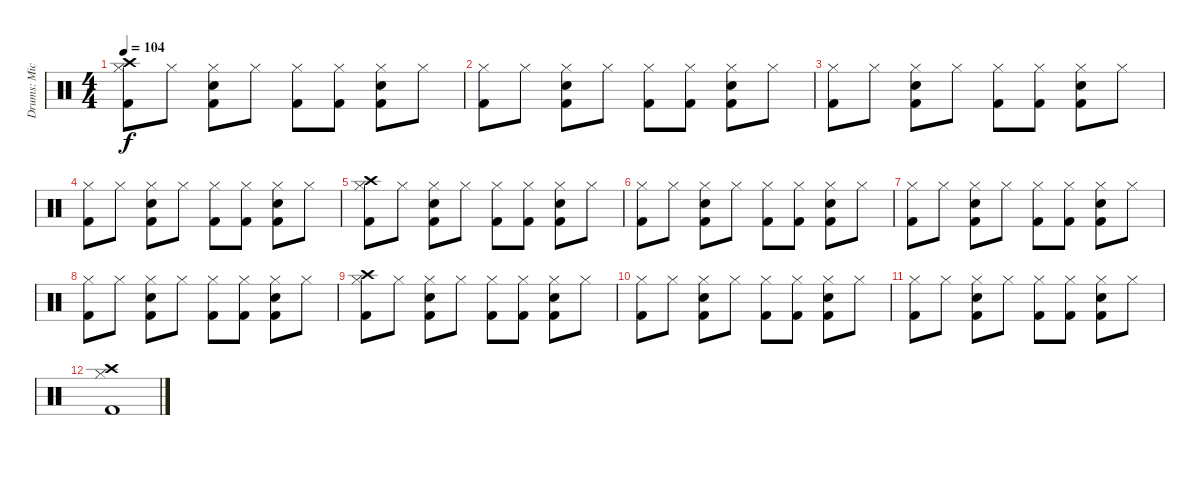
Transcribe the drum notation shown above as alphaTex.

\track ("Drums: Mick Fleetwood" "Drums: Mic") {instrument percussion}
\staff {score}
\articulation defaults
\ts (4 4)
\tempo 104
\clef neutral
\ks c
("Crash high (hit)" "Hi-Hat (closed)" "Kick (hit) 2").8{dy f} "Hi-Hat (closed)".8 ("Hi-Hat (closed)" "Snare (hit) 2" "Kick (hit) 2").8 "Hi-Hat (closed)".8 ("Hi-Hat (closed)" "Kick (hit) 2").8 ("Hi-Hat (closed)" "Kick (hit) 2").8 ("Hi-Hat (closed)" "Snare (hit) 2" "Kick (hit) 2").8 "Hi-Hat (closed)".8 |
("Hi-Hat (closed)" "Kick (hit) 2").8 "Hi-Hat (closed)".8 ("Hi-Hat (closed)" "Snare (hit) 2" "Kick (hit) 2").8 "Hi-Hat (closed)".8 ("Hi-Hat (closed)" "Kick (hit) 2").8 ("Hi-Hat (closed)" "Kick (hit) 2").8 ("Hi-Hat (closed)" "Snare (hit) 2" "Kick (hit) 2").8 "Hi-Hat (closed)".8 |
("Hi-Hat (closed)" "Kick (hit) 2").8 "Hi-Hat (closed)".8 ("Hi-Hat (closed)" "Snare (hit) 2" "Kick (hit) 2").8 "Hi-Hat (closed)".8 ("Hi-Hat (closed)" "Kick (hit) 2").8 ("Hi-Hat (closed)" "Kick (hit) 2").8 ("Hi-Hat (closed)" "Snare (hit) 2" "Kick (hit) 2").8 "Hi-Hat (closed)".8 |
("Hi-Hat (closed)" "Kick (hit) 2").8 "Hi-Hat (closed)".8 ("Hi-Hat (closed)" "Snare (hit) 2" "Kick (hit) 2").8 "Hi-Hat (closed)".8 ("Hi-Hat (closed)" "Kick (hit) 2").8 ("Hi-Hat (closed)" "Kick (hit) 2").8 ("Hi-Hat (closed)" "Snare (hit) 2" "Kick (hit) 2").8 "Hi-Hat (closed)".8 |
("Crash high (hit)" "Hi-Hat (closed)" "Kick (hit) 2").8 "Hi-Hat (closed)".8 ("Hi-Hat (closed)" "Snare (hit) 2" "Kick (hit) 2").8 "Hi-Hat (closed)".8 ("Hi-Hat (closed)" "Kick (hit) 2").8 ("Hi-Hat (closed)" "Kick (hit) 2").8 ("Hi-Hat (closed)" "Snare (hit) 2" "Kick (hit) 2").8 "Hi-Hat (closed)".8 |
("Hi-Hat (closed)" "Kick (hit) 2").8 "Hi-Hat (closed)".8 ("Hi-Hat (closed)" "Snare (hit) 2" "Kick (hit) 2").8 "Hi-Hat (closed)".8 ("Hi-Hat (closed)" "Kick (hit) 2").8 ("Hi-Hat (closed)" "Kick (hit) 2").8 ("Hi-Hat (closed)" "Snare (hit) 2" "Kick (hit) 2").8 "Hi-Hat (closed)".8 |
("Hi-Hat (closed)" "Kick (hit) 2").8 "Hi-Hat (closed)".8 ("Hi-Hat (closed)" "Snare (hit) 2" "Kick (hit) 2").8 "Hi-Hat (closed)".8 ("Hi-Hat (closed)" "Kick (hit) 2").8 ("Hi-Hat (closed)" "Kick (hit) 2").8 ("Hi-Hat (closed)" "Snare (hit) 2" "Kick (hit) 2").8 "Hi-Hat (closed)".8 |
("Hi-Hat (closed)" "Kick (hit) 2").8{volume 0} "Hi-Hat (closed)".8 ("Hi-Hat (closed)" "Snare (hit) 2" "Kick (hit) 2").8 "Hi-Hat (closed)".8 ("Hi-Hat (closed)" "Kick (hit) 2").8 ("Hi-Hat (closed)" "Kick (hit) 2").8 ("Hi-Hat (closed)" "Snare (hit) 2" "Kick (hit) 2").8 "Hi-Hat (closed)".8 |
("Crash high (hit)" "Hi-Hat (closed)" "Kick (hit) 2").8 "Hi-Hat (closed)".8 ("Hi-Hat (closed)" "Snare (hit) 2" "Kick (hit) 2").8 "Hi-Hat (closed)".8 ("Hi-Hat (closed)" "Kick (hit) 2").8 ("Hi-Hat (closed)" "Kick (hit) 2").8 ("Hi-Hat (closed)" "Snare (hit) 2" "Kick (hit) 2").8 "Hi-Hat (closed)".8 |
("Hi-Hat (closed)" "Kick (hit) 2").8 "Hi-Hat (closed)".8 ("Hi-Hat (closed)" "Snare (hit) 2" "Kick (hit) 2").8 "Hi-Hat (closed)".8 ("Hi-Hat (closed)" "Kick (hit) 2").8 ("Hi-Hat (closed)" "Kick (hit) 2").8 ("Hi-Hat (closed)" "Snare (hit) 2" "Kick (hit) 2").8 "Hi-Hat (closed)".8 |
("Hi-Hat (closed)" "Kick (hit) 2").8 "Hi-Hat (closed)".8 ("Hi-Hat (closed)" "Snare (hit) 2" "Kick (hit) 2").8 "Hi-Hat (closed)".8 ("Hi-Hat (closed)" "Kick (hit) 2").8 ("Hi-Hat (closed)" "Kick (hit) 2").8 ("Hi-Hat (closed)" "Snare (hit) 2" "Kick (hit) 2").8 "Hi-Hat (closed)".8 |
("Crash high (hit)" "Hi-Hat (closed)" "Kick (hit) 2").1
